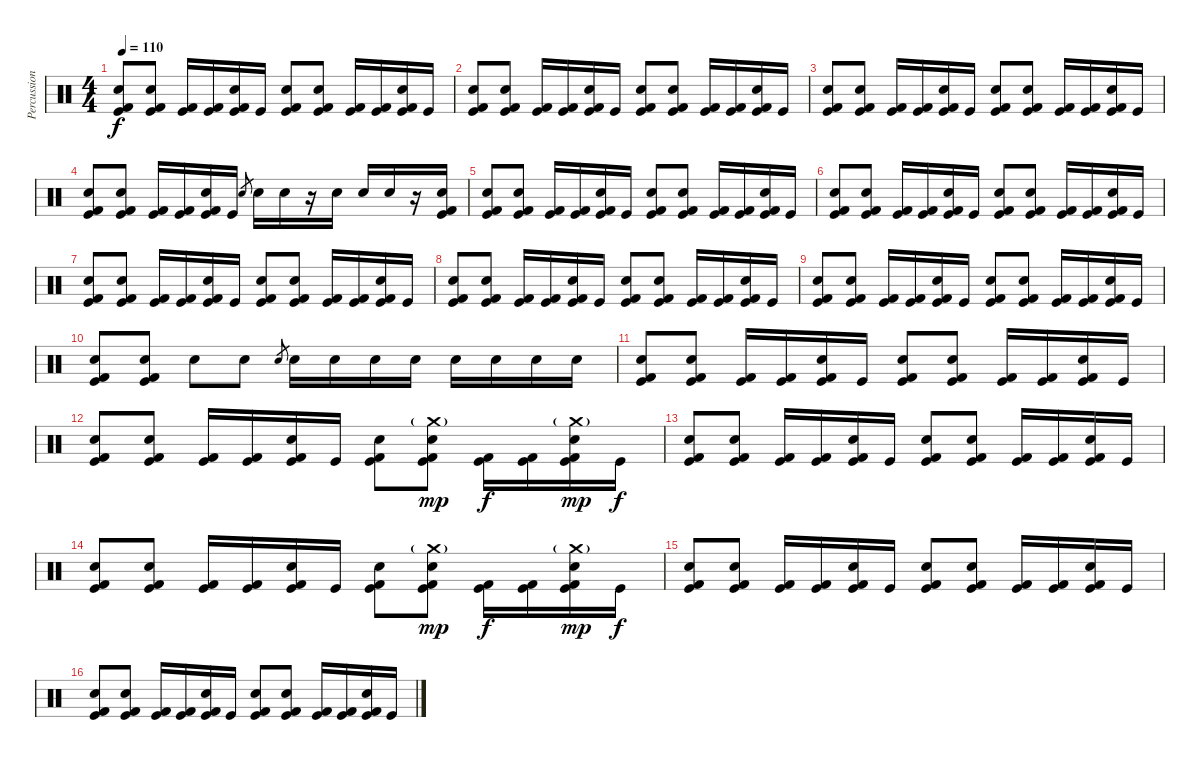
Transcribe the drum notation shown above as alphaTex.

\track ("Percussion" "Percussion") {instrument percussion}
\staff {score}
\articulation defaults
\ts (4 4)
\tempo 110
\clef neutral
\ks c
("Snare (hit) 2" "Kick (hit)" "Kick (hit) 2").8{dy f} ("Electric Snare (hit)" "Kick (hit)" "Kick (hit) 2").8 ("Kick (hit)" "Kick (hit) 2").16 ("Kick (hit)" "Kick (hit) 2").16 ("Electric Snare (hit)" "Kick (hit)" "Kick (hit) 2").16 "Kick (hit)".16 ("Snare (hit) 2" "Kick (hit)" "Kick (hit) 2").8 ("Electric Snare (hit)" "Kick (hit)" "Kick (hit) 2").8 ("Kick (hit)" "Kick (hit) 2").16 ("Kick (hit)" "Kick (hit) 2").16 ("Electric Snare (hit)" "Kick (hit)" "Kick (hit) 2").16 "Kick (hit)".16 |
("Snare (hit) 2" "Kick (hit)" "Kick (hit) 2").8 ("Electric Snare (hit)" "Kick (hit)" "Kick (hit) 2").8 ("Kick (hit)" "Kick (hit) 2").16 ("Kick (hit)" "Kick (hit) 2").16 ("Electric Snare (hit)" "Kick (hit)" "Kick (hit) 2").16 "Kick (hit)".16 ("Snare (hit) 2" "Kick (hit)" "Kick (hit) 2").8 ("Electric Snare (hit)" "Kick (hit)" "Kick (hit) 2").8 ("Kick (hit)" "Kick (hit) 2").16 ("Kick (hit)" "Kick (hit) 2").16 ("Electric Snare (hit)" "Kick (hit)" "Kick (hit) 2").16 "Kick (hit)".16 |
("Snare (hit) 2" "Kick (hit)" "Kick (hit) 2").8 ("Electric Snare (hit)" "Kick (hit)" "Kick (hit) 2").8 ("Kick (hit)" "Kick (hit) 2").16 ("Kick (hit)" "Kick (hit) 2").16 ("Electric Snare (hit)" "Kick (hit)" "Kick (hit) 2").16 "Kick (hit)".16 ("Snare (hit) 2" "Kick (hit)" "Kick (hit) 2").8 ("Electric Snare (hit)" "Kick (hit)" "Kick (hit) 2").8 ("Kick (hit)" "Kick (hit) 2").16 ("Kick (hit)" "Kick (hit) 2").16 ("Electric Snare (hit)" "Kick (hit)" "Kick (hit) 2").16 "Kick (hit)".16 |
("Snare (hit) 2" "Kick (hit)" "Kick (hit) 2").8 ("Electric Snare (hit)" "Kick (hit)" "Kick (hit) 2").8 ("Kick (hit)" "Kick (hit) 2").16 ("Kick (hit)" "Kick (hit) 2").16 ("Electric Snare (hit)" "Kick (hit)" "Kick (hit) 2").16 "Kick (hit)".16 "Electric Snare (hit)".8{gr} "Electric Snare (hit)".16 "Electric Snare (hit)".16 r.16 "Electric Snare (hit)".16 "Electric Snare (hit)".16 "Electric Snare (hit)".16 r.16 ("Electric Snare (hit)" "Kick (hit) 2" "Kick (hit)").16 |
("Snare (hit) 2" "Kick (hit)" "Kick (hit) 2").8 ("Electric Snare (hit)" "Kick (hit)" "Kick (hit) 2").8 ("Kick (hit)" "Kick (hit) 2").16 ("Kick (hit)" "Kick (hit) 2").16 ("Electric Snare (hit)" "Kick (hit)" "Kick (hit) 2").16 "Kick (hit)".16 ("Snare (hit) 2" "Kick (hit)" "Kick (hit) 2").8 ("Electric Snare (hit)" "Kick (hit)" "Kick (hit) 2").8 ("Kick (hit)" "Kick (hit) 2").16 ("Kick (hit)" "Kick (hit) 2").16 ("Electric Snare (hit)" "Kick (hit)" "Kick (hit) 2").16 "Kick (hit)".16 |
("Snare (hit) 2" "Kick (hit)" "Kick (hit) 2").8 ("Electric Snare (hit)" "Kick (hit)" "Kick (hit) 2").8 ("Kick (hit)" "Kick (hit) 2").16 ("Kick (hit)" "Kick (hit) 2").16 ("Electric Snare (hit)" "Kick (hit)" "Kick (hit) 2").16 "Kick (hit)".16 ("Snare (hit) 2" "Kick (hit)" "Kick (hit) 2").8 ("Electric Snare (hit)" "Kick (hit)" "Kick (hit) 2").8 ("Kick (hit)" "Kick (hit) 2").16 ("Kick (hit)" "Kick (hit) 2").16 ("Electric Snare (hit)" "Kick (hit)" "Kick (hit) 2").16 "Kick (hit)".16 |
("Snare (hit) 2" "Kick (hit)" "Kick (hit) 2").8 ("Electric Snare (hit)" "Kick (hit)" "Kick (hit) 2").8 ("Kick (hit)" "Kick (hit) 2").16 ("Kick (hit)" "Kick (hit) 2").16 ("Electric Snare (hit)" "Kick (hit)" "Kick (hit) 2").16 "Kick (hit)".16 ("Snare (hit) 2" "Kick (hit)" "Kick (hit) 2").8 ("Electric Snare (hit)" "Kick (hit)" "Kick (hit) 2").8 ("Kick (hit)" "Kick (hit) 2").16 ("Kick (hit)" "Kick (hit) 2").16 ("Electric Snare (hit)" "Kick (hit)" "Kick (hit) 2").16 "Kick (hit)".16 |
("Snare (hit) 2" "Kick (hit)" "Kick (hit) 2").8 ("Electric Snare (hit)" "Kick (hit)" "Kick (hit) 2").8 ("Kick (hit)" "Kick (hit) 2").16 ("Kick (hit)" "Kick (hit) 2").16 ("Electric Snare (hit)" "Kick (hit)" "Kick (hit) 2").16 "Kick (hit)".16 ("Snare (hit) 2" "Kick (hit)" "Kick (hit) 2").8 ("Electric Snare (hit)" "Kick (hit)" "Kick (hit) 2").8 ("Kick (hit)" "Kick (hit) 2").16 ("Kick (hit)" "Kick (hit) 2").16 ("Electric Snare (hit)" "Kick (hit)" "Kick (hit) 2").16 "Kick (hit)".16 |
("Snare (hit) 2" "Kick (hit)" "Kick (hit) 2").8 ("Electric Snare (hit)" "Kick (hit)" "Kick (hit) 2").8 ("Kick (hit)" "Kick (hit) 2").16 ("Kick (hit)" "Kick (hit) 2").16 ("Electric Snare (hit)" "Kick (hit)" "Kick (hit) 2").16 "Kick (hit)".16 ("Snare (hit) 2" "Kick (hit)" "Kick (hit) 2").8 ("Electric Snare (hit)" "Kick (hit)" "Kick (hit) 2").8 ("Kick (hit)" "Kick (hit) 2").16 ("Kick (hit)" "Kick (hit) 2").16 ("Electric Snare (hit)" "Kick (hit)" "Kick (hit) 2").16 "Kick (hit)".16 |
("Snare (hit) 2" "Kick (hit)" "Kick (hit) 2").8 ("Electric Snare (hit)" "Kick (hit)" "Kick (hit) 2").8 "Electric Snare (hit)".8 "Electric Snare (hit)".8 "Electric Snare (hit)".8{gr} "Electric Snare (hit)".16 "Electric Snare (hit)".16 "Electric Snare (hit)".16 "Electric Snare (hit)".16 "Electric Snare (hit)".16 "Electric Snare (hit)".16 "Electric Snare (hit)".16 "Electric Snare (hit)".16 |
("Snare (hit) 2" "Kick (hit)" "Kick (hit) 2").8 ("Electric Snare (hit)" "Kick (hit)" "Kick (hit) 2").8 ("Kick (hit)" "Kick (hit) 2").16 ("Kick (hit)" "Kick (hit) 2").16 ("Electric Snare (hit)" "Kick (hit)" "Kick (hit) 2").16 "Kick (hit)".16 ("Snare (hit) 2" "Kick (hit)" "Kick (hit) 2").8 ("Electric Snare (hit)" "Kick (hit)" "Kick (hit) 2").8 ("Kick (hit)" "Kick (hit) 2").16 ("Kick (hit)" "Kick (hit) 2").16 ("Electric Snare (hit)" "Kick (hit)" "Kick (hit) 2").16 "Kick (hit)".16 |
("Snare (hit) 2" "Kick (hit)" "Kick (hit) 2").8 ("Electric Snare (hit)" "Kick (hit)" "Kick (hit) 2").8 ("Kick (hit)" "Kick (hit) 2").16 ("Kick (hit)" "Kick (hit) 2").16 ("Electric Snare (hit)" "Kick (hit)" "Kick (hit) 2").16 "Kick (hit)".16 ("Snare (hit) 2" "Kick (hit)" "Kick (hit) 2").8 ("Crash medium (hit)"{g} "Electric Snare (hit)" "Kick (hit)" "Kick (hit) 2").8{dy mp} ("Kick (hit)" "Kick (hit) 2").16{dy f} ("Kick (hit)" "Kick (hit) 2").16 ("Crash medium (hit)"{g} "Electric Snare (hit)" "Kick (hit)" "Kick (hit) 2").16{dy mp} "Kick (hit)".16{dy f} |
("Snare (hit) 2" "Kick (hit)" "Kick (hit) 2").8 ("Electric Snare (hit)" "Kick (hit)" "Kick (hit) 2").8 ("Kick (hit)" "Kick (hit) 2").16 ("Kick (hit)" "Kick (hit) 2").16 ("Electric Snare (hit)" "Kick (hit)" "Kick (hit) 2").16 "Kick (hit)".16 ("Snare (hit) 2" "Kick (hit)" "Kick (hit) 2").8 ("Electric Snare (hit)" "Kick (hit)" "Kick (hit) 2").8 ("Kick (hit)" "Kick (hit) 2").16 ("Kick (hit)" "Kick (hit) 2").16 ("Electric Snare (hit)" "Kick (hit)" "Kick (hit) 2").16 "Kick (hit)".16 |
("Snare (hit) 2" "Kick (hit)" "Kick (hit) 2").8 ("Electric Snare (hit)" "Kick (hit)" "Kick (hit) 2").8 ("Kick (hit)" "Kick (hit) 2").16 ("Kick (hit)" "Kick (hit) 2").16 ("Electric Snare (hit)" "Kick (hit)" "Kick (hit) 2").16 "Kick (hit)".16 ("Snare (hit) 2" "Kick (hit)" "Kick (hit) 2").8 ("Crash medium (hit)"{g} "Electric Snare (hit)" "Kick (hit)" "Kick (hit) 2").8{dy mp} ("Kick (hit)" "Kick (hit) 2").16{dy f} ("Kick (hit)" "Kick (hit) 2").16 ("Crash medium (hit)"{g} "Electric Snare (hit)" "Kick (hit)" "Kick (hit) 2").16{dy mp} "Kick (hit)".16{dy f} |
("Snare (hit) 2" "Kick (hit)" "Kick (hit) 2").8 ("Electric Snare (hit)" "Kick (hit)" "Kick (hit) 2").8 ("Kick (hit)" "Kick (hit) 2").16 ("Kick (hit)" "Kick (hit) 2").16 ("Electric Snare (hit)" "Kick (hit)" "Kick (hit) 2").16 "Kick (hit)".16 ("Snare (hit) 2" "Kick (hit)" "Kick (hit) 2").8 ("Electric Snare (hit)" "Kick (hit)" "Kick (hit) 2").8 ("Kick (hit)" "Kick (hit) 2").16 ("Kick (hit)" "Kick (hit) 2").16 ("Electric Snare (hit)" "Kick (hit)" "Kick (hit) 2").16 "Kick (hit)".16 |
("Snare (hit) 2" "Kick (hit)" "Kick (hit) 2").8 ("Electric Snare (hit)" "Kick (hit)" "Kick (hit) 2").8 ("Kick (hit)" "Kick (hit) 2").16 ("Kick (hit)" "Kick (hit) 2").16 ("Electric Snare (hit)" "Kick (hit)" "Kick (hit) 2").16 "Kick (hit)".16 ("Snare (hit) 2" "Kick (hit)" "Kick (hit) 2").8 ("Electric Snare (hit)" "Kick (hit)" "Kick (hit) 2").8 ("Kick (hit)" "Kick (hit) 2").16 ("Kick (hit)" "Kick (hit) 2").16 ("Electric Snare (hit)" "Kick (hit)" "Kick (hit) 2").16 "Kick (hit)".16
